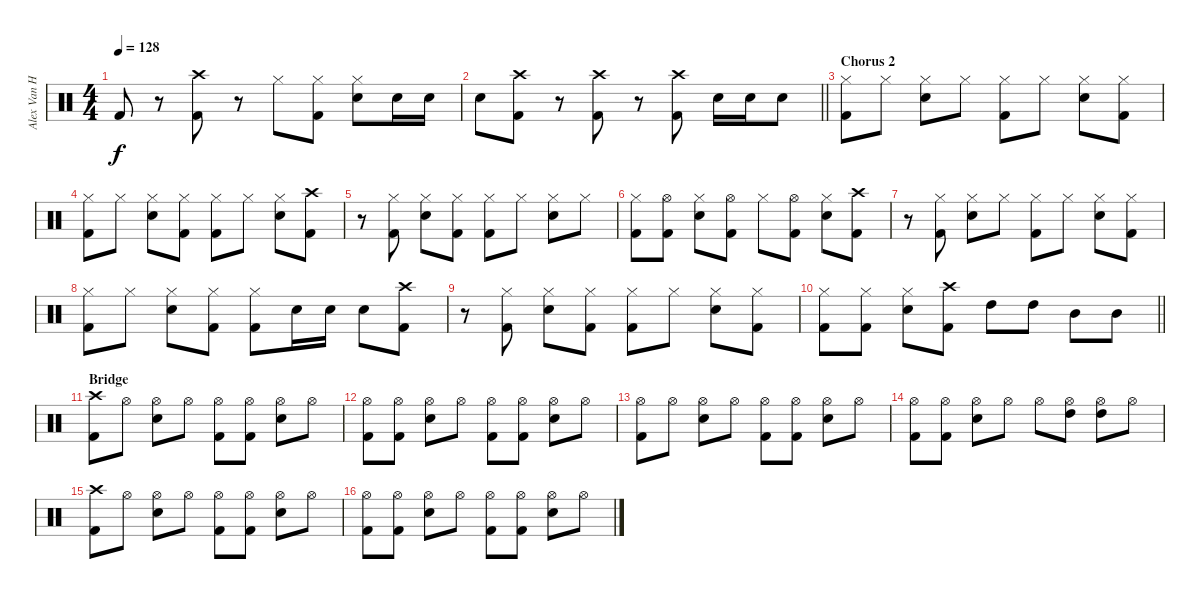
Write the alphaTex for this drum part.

\track ("Alex Van Halen" "Alex Van H") {instrument percussion}
\staff {score}
\articulation defaults
\ts (4 4)
\tempo 128
\clef neutral
\ks c "Kick (hit) 2".8{dy f}
r.8 ("Crash high (hit)" "Kick (hit) 2").8 r.8 "Hi-Hat (closed)".8 ("Kick (hit) 2" "Hi-Hat (closed)").8 ("Snare (hit) 2" "Hi-Hat (closed)").8 "Snare (hit) 2".16 "Snare (hit) 2".16 |
\barLineRight lightlight "Snare (hit) 2".8
("Crash high (hit)" "Kick (hit) 2").8 r.8 ("Crash high (hit)" "Kick (hit) 2").8 r.8 ("Crash high (hit)" "Kick (hit) 2").8 "Snare (hit) 2".16 "Snare (hit) 2".16 "Snare (hit) 2".8 |
\section ("" "Chorus 2")
("Kick (hit) 2" "Hi-Hat (closed)").8 "Hi-Hat (closed)".8 ("Snare (hit) 2" "Hi-Hat (closed)").8 "Hi-Hat (closed)".8 ("Kick (hit) 2" "Hi-Hat (closed)").8 "Hi-Hat (closed)".8 ("Snare (hit) 2" "Hi-Hat (closed)").8 ("Kick (hit) 2" "Hi-Hat (closed)").8 |
("Kick (hit) 2" "Hi-Hat (closed)").8 "Hi-Hat (closed)".8 ("Snare (hit) 2" "Hi-Hat (closed)").8 ("Kick (hit) 2" "Hi-Hat (closed)").8 ("Kick (hit) 2" "Hi-Hat (closed)").8 "Hi-Hat (closed)".8 ("Snare (hit) 2" "Hi-Hat (closed)").8 ("Kick (hit) 2" "Crash high (hit)").8 |
r.8 ("Kick (hit) 2" "Hi-Hat (closed)").8 ("Snare (hit) 2" "Hi-Hat (closed)").8 ("Kick (hit) 2" "Hi-Hat (closed)").8 ("Kick (hit) 2" "Hi-Hat (closed)").8 "Hi-Hat (closed)".8 ("Snare (hit) 2" "Hi-Hat (closed)").8 "Hi-Hat (closed)".8 |
("Kick (hit) 2" "Hi-Hat (closed)").8 ("Kick (hit) 2" "Hi-Hat (open)").8 ("Snare (hit) 2" "Hi-Hat (closed)").8 ("Kick (hit) 2" "Hi-Hat (open)").8 "Hi-Hat (closed)".8 ("Kick (hit) 2" "Hi-Hat (open)").8 ("Snare (hit) 2" "Hi-Hat (closed)").8 ("Kick (hit) 2" "Crash high (hit)").8 |
r.8 ("Kick (hit) 2" "Hi-Hat (closed)").8 ("Snare (hit) 2" "Hi-Hat (closed)").8 "Hi-Hat (closed)".8 ("Kick (hit) 2" "Hi-Hat (closed)").8 "Hi-Hat (closed)".8 ("Snare (hit) 2" "Hi-Hat (closed)").8 ("Kick (hit) 2" "Hi-Hat (closed)").8 |
("Kick (hit) 2" "Hi-Hat (closed)").8 "Hi-Hat (closed)".8 ("Snare (hit) 2" "Hi-Hat (closed)").8 ("Kick (hit) 2" "Hi-Hat (closed)").8 ("Kick (hit) 2" "Hi-Hat (closed)").8 "Snare (hit) 2".16 "Snare (hit) 2".16 "Snare (hit) 2".8 ("Kick (hit) 2" "Crash high (hit)").8 |
r.8 ("Kick (hit) 2" "Hi-Hat (closed)").8 ("Snare (hit) 2" "Hi-Hat (closed)").8 ("Kick (hit) 2" "Hi-Hat (closed)").8 ("Kick (hit) 2" "Hi-Hat (closed)").8 "Hi-Hat (closed)".8 ("Snare (hit) 2" "Hi-Hat (closed)").8 ("Kick (hit) 2" "Hi-Hat (closed)").8 |
\barLineRight lightlight
("Kick (hit) 2" "Hi-Hat (closed)").8 ("Kick (hit) 2" "Hi-Hat (closed)").8 ("Snare (hit) 2" "Hi-Hat (closed)").8 ("Kick (hit) 2" "Crash high (hit)").8 "High Tom (hit)".8 "High Tom (hit)".8 "Mid Tom (hit)".8 "Mid Tom (hit)".8 |
\section ("" "Bridge")
("Kick (hit) 2" "Crash high (hit)").8 "Hi-Hat (open)".8 ("Snare (hit) 2" "Hi-Hat (open)").8 "Hi-Hat (open)".8 ("Kick (hit) 2" "Hi-Hat (open)").8 ("Kick (hit) 2" "Hi-Hat (open)").8 ("Snare (hit) 2" "Hi-Hat (open)").8 "Hi-Hat (open)".8 |
("Kick (hit) 2" "Hi-Hat (open)").8 ("Kick (hit) 2" "Hi-Hat (open)").8 ("Snare (hit) 2" "Hi-Hat (open)").8 "Hi-Hat (open)".8 ("Kick (hit) 2" "Hi-Hat (open)").8 ("Kick (hit) 2" "Hi-Hat (open)").8 ("Snare (hit) 2" "Hi-Hat (open)").8 "Hi-Hat (open)".8 |
("Kick (hit) 2" "Hi-Hat (open)").8 "Hi-Hat (open)".8 ("Snare (hit) 2" "Hi-Hat (open)").8 "Hi-Hat (open)".8 ("Kick (hit) 2" "Hi-Hat (open)").8 ("Kick (hit) 2" "Hi-Hat (open)").8 ("Snare (hit) 2" "Hi-Hat (open)").8 "Hi-Hat (open)".8 |
("Kick (hit) 2" "Hi-Hat (open)").8 ("Kick (hit) 2" "Hi-Hat (open)").8 ("Snare (hit) 2" "Hi-Hat (open)").8 "Hi-Hat (open)".8 "Hi-Hat (open)".8 ("High Tom (hit)" "Hi-Hat (open)").8 ("High Tom (hit)" "Hi-Hat (open)").8 "Hi-Hat (open)".8 |
("Kick (hit) 2" "Crash high (hit)").8 "Hi-Hat (open)".8 ("Snare (hit) 2" "Hi-Hat (open)").8 "Hi-Hat (open)".8 ("Kick (hit) 2" "Hi-Hat (open)").8 ("Kick (hit) 2" "Hi-Hat (open)").8 ("Snare (hit) 2" "Hi-Hat (open)").8 "Hi-Hat (open)".8 |
("Kick (hit) 2" "Hi-Hat (open)").8 ("Kick (hit) 2" "Hi-Hat (open)").8 ("Snare (hit) 2" "Hi-Hat (open)").8 "Hi-Hat (open)".8 ("Kick (hit) 2" "Hi-Hat (open)").8 ("Kick (hit) 2" "Hi-Hat (open)").8 ("Snare (hit) 2" "Hi-Hat (open)").8 "Hi-Hat (open)".8
